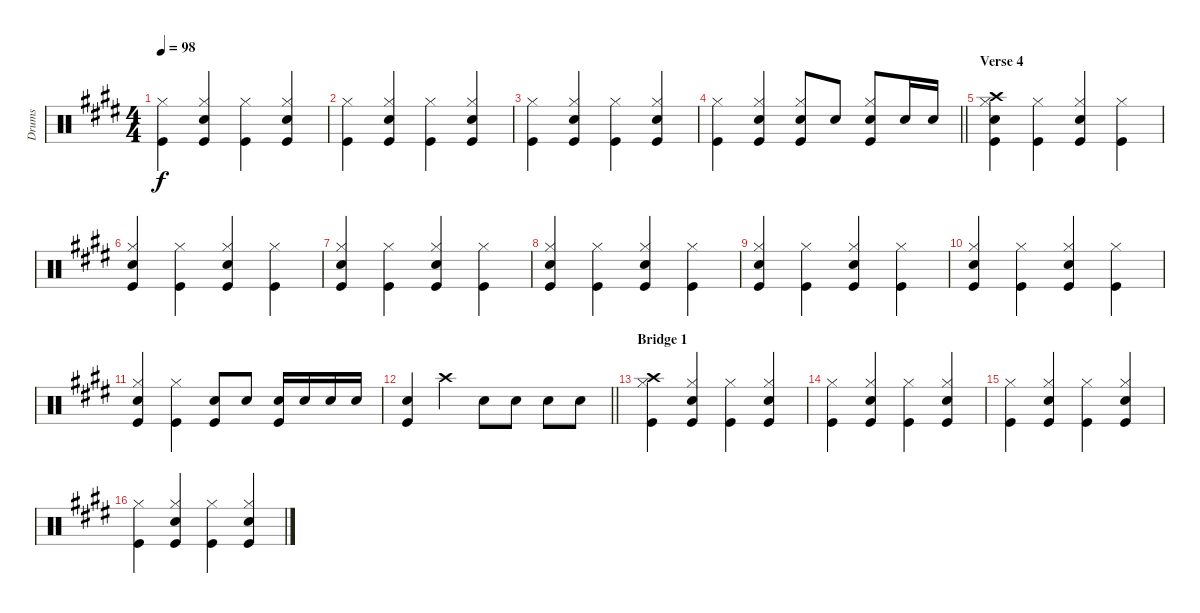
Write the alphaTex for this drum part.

\track ("Drums" "Drums") {instrument percussion}
\staff {score}
\articulation defaults
\ts (4 4)
\tempo 98
\clef neutral
\ks c#minor
("Kick (hit)" "Hi-Hat (closed)").4{dy f} ("Kick (hit)" "Snare (hit) 2" "Hi-Hat (closed)").4 ("Kick (hit)" "Hi-Hat (closed)").4 ("Kick (hit)" "Snare (hit) 2" "Hi-Hat (closed)").4 |
("Kick (hit)" "Hi-Hat (closed)").4 ("Kick (hit)" "Snare (hit) 2" "Hi-Hat (closed)").4 ("Kick (hit)" "Hi-Hat (closed)").4 ("Kick (hit)" "Snare (hit) 2" "Hi-Hat (closed)").4 |
("Kick (hit)" "Hi-Hat (closed)").4 ("Kick (hit)" "Snare (hit) 2" "Hi-Hat (closed)").4 ("Kick (hit)" "Hi-Hat (closed)").4 ("Kick (hit)" "Snare (hit) 2" "Hi-Hat (closed)").4 |
\barLineRight lightlight
("Kick (hit)" "Hi-Hat (closed)").4 ("Kick (hit)" "Snare (hit) 2" "Hi-Hat (closed)").4 ("Kick (hit)" "Snare (hit) 2" "Hi-Hat (closed)").8 "Snare (hit) 2".8 ("Kick (hit)" "Snare (hit) 2" "Hi-Hat (closed)").8 "Snare (hit) 2".16 "Snare (hit) 2".16 |
\section ("" "Verse 4")
("Kick (hit)" "Snare (hit) 2" "Hi-Hat (closed)" "Crash high (hit)").4 ("Kick (hit)" "Hi-Hat (closed)").4 ("Kick (hit)" "Snare (hit) 2" "Hi-Hat (closed)").4 ("Kick (hit)" "Hi-Hat (closed)").4 |
("Kick (hit)" "Snare (hit) 2" "Hi-Hat (closed)").4 ("Kick (hit)" "Hi-Hat (closed)").4 ("Kick (hit)" "Snare (hit) 2" "Hi-Hat (closed)").4 ("Kick (hit)" "Hi-Hat (closed)").4 |
("Kick (hit)" "Snare (hit) 2" "Hi-Hat (closed)").4 ("Kick (hit)" "Hi-Hat (closed)").4 ("Kick (hit)" "Snare (hit) 2" "Hi-Hat (closed)").4 ("Kick (hit)" "Hi-Hat (closed)").4 |
("Kick (hit)" "Snare (hit) 2" "Hi-Hat (closed)").4 ("Kick (hit)" "Hi-Hat (closed)").4 ("Kick (hit)" "Snare (hit) 2" "Hi-Hat (closed)").4 ("Kick (hit)" "Hi-Hat (closed)").4 |
("Kick (hit)" "Snare (hit) 2" "Hi-Hat (closed)").4 ("Kick (hit)" "Hi-Hat (closed)").4 ("Kick (hit)" "Snare (hit) 2" "Hi-Hat (closed)").4 ("Kick (hit)" "Hi-Hat (closed)").4 |
("Kick (hit)" "Snare (hit) 2" "Hi-Hat (closed)").4 ("Kick (hit)" "Hi-Hat (closed)").4 ("Kick (hit)" "Snare (hit) 2" "Hi-Hat (closed)").4 ("Kick (hit)" "Hi-Hat (closed)").4 |
("Kick (hit)" "Snare (hit) 2" "Hi-Hat (closed)").4 ("Kick (hit)" "Hi-Hat (closed)").4 ("Kick (hit)" "Snare (hit) 2").8 "Snare (hit) 2".8 ("Kick (hit)" "Snare (hit) 2").16 "Snare (hit) 2".16 "Snare (hit) 2".16 "Snare (hit) 2".16 |
\barLineRight lightlight
("Kick (hit)" "Snare (hit) 2").4 "Crash high (hit)".4 "Snare (hit) 2".8 "Snare (hit) 2".8 "Snare (hit) 2".8 "Snare (hit) 2".8 |
\section ("" "Bridge 1")
("Kick (hit)" "Hi-Hat (closed)" "Crash high (hit)").4 ("Kick (hit)" "Snare (hit) 2" "Hi-Hat (closed)").4 ("Kick (hit)" "Hi-Hat (closed)").4 ("Kick (hit)" "Snare (hit) 2" "Hi-Hat (closed)").4 |
("Kick (hit)" "Hi-Hat (closed)").4 ("Kick (hit)" "Snare (hit) 2" "Hi-Hat (closed)").4 ("Kick (hit)" "Hi-Hat (closed)").4 ("Kick (hit)" "Snare (hit) 2" "Hi-Hat (closed)").4 |
("Kick (hit)" "Hi-Hat (closed)").4 ("Kick (hit)" "Snare (hit) 2" "Hi-Hat (closed)").4 ("Kick (hit)" "Hi-Hat (closed)").4 ("Kick (hit)" "Snare (hit) 2" "Hi-Hat (closed)").4 |
("Kick (hit)" "Hi-Hat (closed)").4 ("Kick (hit)" "Snare (hit) 2" "Hi-Hat (closed)").4 ("Kick (hit)" "Hi-Hat (closed)").4 ("Kick (hit)" "Snare (hit) 2" "Hi-Hat (closed)").4
